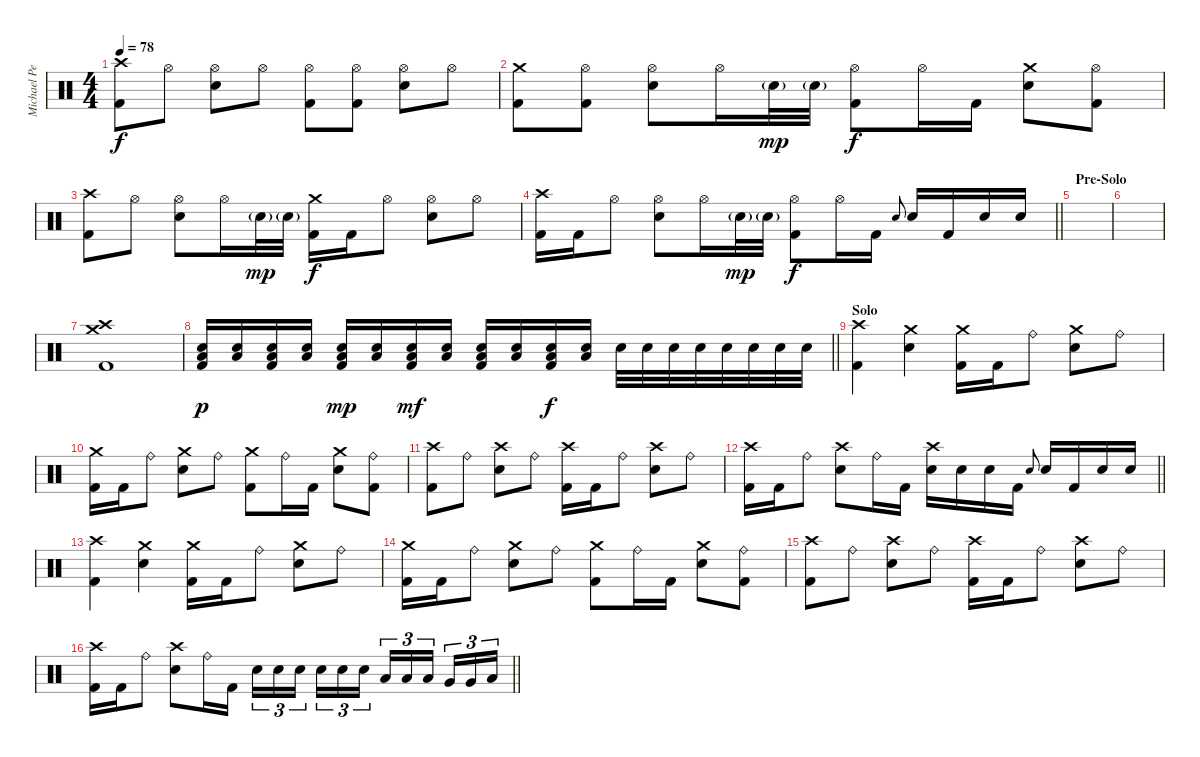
\track ("Michael Pedicone [Drums]" "Michael Pe") {instrument percussion}
\staff {score}
\articulation defaults
\ts (4 4)
\tempo 78
\clef neutral
\ks c
("Crash high (hit)" "Kick (hit) 2").8{dy f} "Hi-Hat (open)".8 ("Hi-Hat (open)" "Electric Snare (hit)").8 "Hi-Hat (open)".8 ("Hi-Hat (open)" "Kick (hit) 2").8 ("Hi-Hat (open)" "Kick (hit) 2").8 ("Hi-Hat (open)" "Electric Snare (hit)").8 "Hi-Hat (open)".8 |
("Crash medium (hit)" "Kick (hit) 2").8 ("Hi-Hat (open)" "Kick (hit) 2").8 ("Hi-Hat (open)" "Electric Snare (hit)").8 "Hi-Hat (open)".16 "Electric Snare (hit)"{g}.32{dy mp} "Electric Snare (hit)"{g}.32 ("Hi-Hat (open)" "Kick (hit) 2").8{dy f} "Hi-Hat (open)".16 "Kick (hit) 2".16 ("Crash medium (hit)" "Electric Snare (hit)").8 ("Hi-Hat (open)" "Kick (hit) 2").8 |
("Crash high (hit)" "Kick (hit) 2").8 "Hi-Hat (open)".8 ("Hi-Hat (open)" "Electric Snare (hit)").8 "Hi-Hat (open)".16 "Electric Snare (hit)"{g}.32{dy mp} "Electric Snare (hit)"{g}.32 ("Crash medium (hit)" "Kick (hit) 2").16{dy f} "Kick (hit) 2".16 "Hi-Hat (open)".8 ("Hi-Hat (open)" "Electric Snare (hit)").8 "Hi-Hat (open)".8 |
\barLineRight lightlight
("Crash high (hit)" "Kick (hit) 2").16 "Kick (hit) 2".16 "Hi-Hat (open)".8 ("Hi-Hat (open)" "Electric Snare (hit)").8 "Hi-Hat (open)".16 "Electric Snare (hit)"{g}.32{dy mp} "Electric Snare (hit)"{g}.32 ("Hi-Hat (open)" "Kick (hit) 2").8{dy f} "Hi-Hat (open)".16 "Kick (hit) 2".16 "Electric Snare (hit)".8{gr onbeat} "Electric Snare (hit)".16 "Kick (hit) 2".16 "Electric Snare (hit)".16 "Electric Snare (hit)".16 |
\section ("" "Pre-Solo")
|
|
("Crash high (hit)" "Crash medium (hit)" "Kick (hit) 2").1 |
\barLineRight lightlight
("Low Floor Tom (hit)" "Electric Snare (hit)" "Kick (hit) 2").16{dy p} ("Low Floor Tom (hit)" "Electric Snare (hit)").16 ("Low Floor Tom (hit)" "Electric Snare (hit)" "Kick (hit) 2").16 ("Low Floor Tom (hit)" "Electric Snare (hit)").16 ("Low Floor Tom (hit)" "Electric Snare (hit)" "Kick (hit) 2").16{dy mp} ("Low Floor Tom (hit)" "Electric Snare (hit)").16 ("Low Floor Tom (hit)" "Electric Snare (hit)" "Kick (hit) 2").16{dy mf} ("Low Floor Tom (hit)" "Electric Snare (hit)").16 ("Low Floor Tom (hit)" "Electric Snare (hit)" "Kick (hit) 2").16 ("Low Floor Tom (hit)" "Electric Snare (hit)").16 ("Low Floor Tom (hit)" "Electric Snare (hit)" "Kick (hit) 2").16{dy f} ("Low Floor Tom (hit)" "Electric Snare (hit)").16 "Electric Snare (hit)".32 "Electric Snare (hit)".32 "Electric Snare (hit)".32 "Electric Snare (hit)".32 "Electric Snare (hit)".32 "Electric Snare (hit)".32 "Electric Snare (hit)".32 "Electric Snare (hit)".32 |
\section ("" "Solo")
("Crash high (hit)" "Kick (hit) 2").4 ("Crash medium (hit)" "Electric Snare (hit)").4 ("Crash medium (hit)" "Kick (hit) 2").16 "Kick (hit) 2".16 "Ride (bell)".8 ("Crash medium (hit)" "Electric Snare (hit)").8 "Ride (bell)".8 |
("Crash medium (hit)" "Kick (hit) 2").16 "Kick (hit) 2".16 "Ride (bell)".8 ("Crash medium (hit)" "Electric Snare (hit)").8 "Ride (bell)".8 ("Crash medium (hit)" "Kick (hit) 2").8 "Ride (bell)".16 "Kick (hit) 2".16 ("Crash medium (hit)" "Electric Snare (hit)").8 ("Ride (bell)" "Kick (hit) 2").8 |
("Crash high (hit)" "Kick (hit) 2").8 "Ride (bell)".8 ("Crash high (hit)" "Electric Snare (hit)").8 "Ride (bell)".8 ("Crash high (hit)" "Kick (hit) 2").16 "Kick (hit) 2".16 "Ride (bell)".8 ("Crash high (hit)" "Electric Snare (hit)").8 "Ride (bell)".8 |
\barLineRight lightlight
("Crash high (hit)" "Kick (hit) 2").16 "Kick (hit) 2".16 "Ride (bell)".8 ("Crash high (hit)" "Electric Snare (hit)").8 "Ride (bell)".16 "Kick (hit) 2".16 ("Crash high (hit)" "Electric Snare (hit)").16 "Electric Snare (hit)".16 "Electric Snare (hit)".16 "Kick (hit) 2".16 "Electric Snare (hit)".8{gr onbeat} "Electric Snare (hit)".16 "Kick (hit) 2".16 "Electric Snare (hit)".16 "Electric Snare (hit)".16 |
("Crash high (hit)" "Kick (hit) 2").4 ("Crash medium (hit)" "Electric Snare (hit)").4 ("Crash medium (hit)" "Kick (hit) 2").16 "Kick (hit) 2".16 "Ride (bell)".8 ("Crash medium (hit)" "Electric Snare (hit)").8 "Ride (bell)".8 |
("Crash medium (hit)" "Kick (hit) 2").16 "Kick (hit) 2".16 "Ride (bell)".8 ("Crash medium (hit)" "Electric Snare (hit)").8 "Ride (bell)".8 ("Crash medium (hit)" "Kick (hit) 2").8 "Ride (bell)".16 "Kick (hit) 2".16 ("Crash medium (hit)" "Electric Snare (hit)").8 ("Ride (bell)" "Kick (hit) 2").8 |
("Crash high (hit)" "Kick (hit) 2").8 "Ride (bell)".8 ("Crash high (hit)" "Electric Snare (hit)").8 "Ride (bell)".8 ("Crash high (hit)" "Kick (hit) 2").16 "Kick (hit) 2".16 "Ride (bell)".8 ("Crash high (hit)" "Electric Snare (hit)").8 "Ride (bell)".8 |
\barLineRight lightlight
("Crash high (hit)" "Kick (hit) 2").16 "Kick (hit) 2".16 "Ride (bell)".8 ("Crash high (hit)" "Electric Snare (hit)").8 "Ride (bell)".16 "Kick (hit) 2".16 "Electric Snare (hit)".16{tu (3 2)} "Electric Snare (hit)".16{tu (3 2)} "Electric Snare (hit)".16{tu (3 2) beam splitsecondary} "Electric Snare (hit)".16{tu (3 2)} "Electric Snare (hit)".16{tu (3 2)} "Electric Snare (hit)".16{tu (3 2)} "Low Tom (hit)".16{tu (3 2)} "Low Tom (hit)".16{tu (3 2)} "Low Tom (hit)".16{tu (3 2) beam splitsecondary} "Very Low Tom (hit)".16{tu (3 2)} "Very Low Tom (hit)".16{tu (3 2)} "Low Floor Tom (hit)".16{tu (3 2)}
